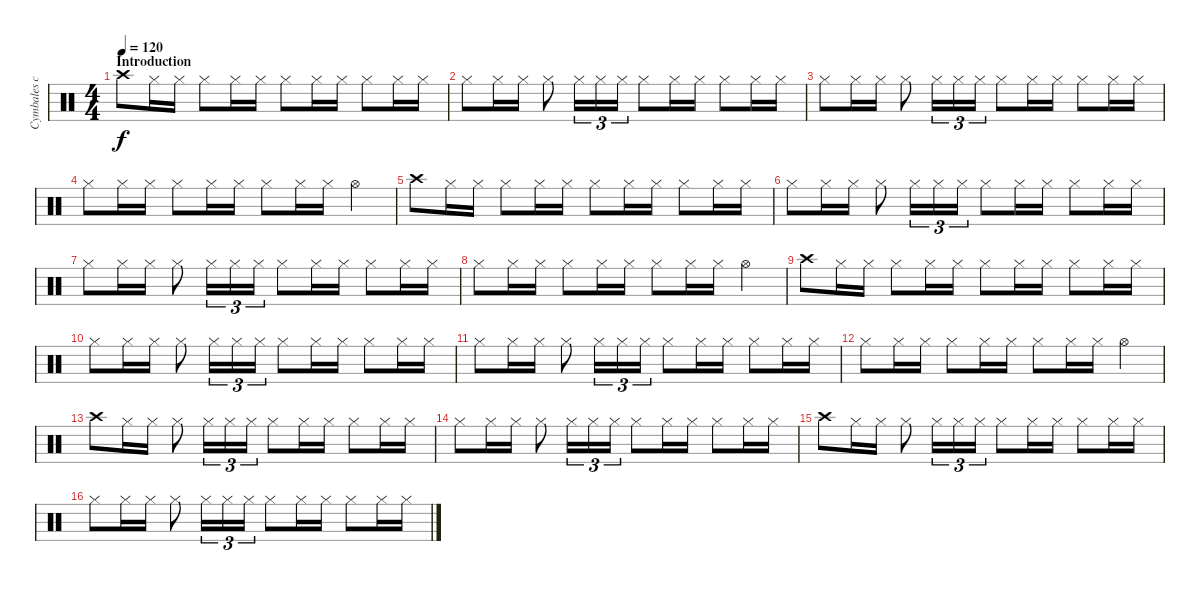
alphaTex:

\track ("Cymbales charlestone" "Cymbales c") {instrument percussion}
\staff {score}
\articulation defaults
\ts (4 4)
\section ("" "Introduction")
\tempo 120
\tempo 160
\tempo 120
\clef neutral
\ks c "Crash high (hit)".8{dy f} "Hi-Hat (closed)".16 "Hi-Hat (closed)".16 "Hi-Hat (closed)".8 "Hi-Hat (closed)".16 "Hi-Hat (closed)".16 "Hi-Hat (closed)".8 "Hi-Hat (closed)".16 "Hi-Hat (closed)".16 "Hi-Hat (closed)".8 "Hi-Hat (closed)".16 "Hi-Hat (closed)".16
|
"Hi-Hat (closed)".8 "Hi-Hat (closed)".16 "Hi-Hat (closed)".16 "Hi-Hat (closed)".8 "Hi-Hat (closed)".16{tu (3 2)} "Hi-Hat (closed)".16{tu (3 2)} "Hi-Hat (closed)".16{tu (3 2)} "Hi-Hat (closed)".8 "Hi-Hat (closed)".16 "Hi-Hat (closed)".16 "Hi-Hat (closed)".8 "Hi-Hat (closed)".16 "Hi-Hat (closed)".16 |
"Hi-Hat (closed)".8 "Hi-Hat (closed)".16 "Hi-Hat (closed)".16 "Hi-Hat (closed)".8 "Hi-Hat (closed)".16{tu (3 2)} "Hi-Hat (closed)".16{tu (3 2)} "Hi-Hat (closed)".16{tu (3 2)} "Hi-Hat (closed)".8 "Hi-Hat (closed)".16 "Hi-Hat (closed)".16 "Hi-Hat (closed)".8 "Hi-Hat (closed)".16 "Hi-Hat (closed)".16 |
"Hi-Hat (closed)".8 "Hi-Hat (closed)".16 "Hi-Hat (closed)".16 "Hi-Hat (closed)".8 "Hi-Hat (closed)".16 "Hi-Hat (closed)".16 "Hi-Hat (closed)".8 "Hi-Hat (closed)".16 "Hi-Hat (closed)".16 "Hi-Hat (open)".4 |
"Crash high (hit)".8 "Hi-Hat (closed)".16 "Hi-Hat (closed)".16 "Hi-Hat (closed)".8 "Hi-Hat (closed)".16 "Hi-Hat (closed)".16 "Hi-Hat (closed)".8 "Hi-Hat (closed)".16 "Hi-Hat (closed)".16 "Hi-Hat (closed)".8 "Hi-Hat (closed)".16 "Hi-Hat (closed)".16 |
"Hi-Hat (closed)".8 "Hi-Hat (closed)".16 "Hi-Hat (closed)".16 "Hi-Hat (closed)".8 "Hi-Hat (closed)".16{tu (3 2)} "Hi-Hat (closed)".16{tu (3 2)} "Hi-Hat (closed)".16{tu (3 2)} "Hi-Hat (closed)".8 "Hi-Hat (closed)".16 "Hi-Hat (closed)".16 "Hi-Hat (closed)".8 "Hi-Hat (closed)".16 "Hi-Hat (closed)".16 |
"Hi-Hat (closed)".8 "Hi-Hat (closed)".16 "Hi-Hat (closed)".16 "Hi-Hat (closed)".8 "Hi-Hat (closed)".16{tu (3 2)} "Hi-Hat (closed)".16{tu (3 2)} "Hi-Hat (closed)".16{tu (3 2)} "Hi-Hat (closed)".8 "Hi-Hat (closed)".16 "Hi-Hat (closed)".16 "Hi-Hat (closed)".8 "Hi-Hat (closed)".16 "Hi-Hat (closed)".16 |
"Hi-Hat (closed)".8 "Hi-Hat (closed)".16 "Hi-Hat (closed)".16 "Hi-Hat (closed)".8 "Hi-Hat (closed)".16 "Hi-Hat (closed)".16 "Hi-Hat (closed)".8 "Hi-Hat (closed)".16 "Hi-Hat (closed)".16 "Hi-Hat (open)".4 |
"Crash high (hit)".8 "Hi-Hat (closed)".16 "Hi-Hat (closed)".16 "Hi-Hat (closed)".8 "Hi-Hat (closed)".16 "Hi-Hat (closed)".16 "Hi-Hat (closed)".8 "Hi-Hat (closed)".16 "Hi-Hat (closed)".16 "Hi-Hat (closed)".8 "Hi-Hat (closed)".16 "Hi-Hat (closed)".16 |
"Hi-Hat (closed)".8 "Hi-Hat (closed)".16 "Hi-Hat (closed)".16 "Hi-Hat (closed)".8 "Hi-Hat (closed)".16{tu (3 2)} "Hi-Hat (closed)".16{tu (3 2)} "Hi-Hat (closed)".16{tu (3 2)} "Hi-Hat (closed)".8 "Hi-Hat (closed)".16 "Hi-Hat (closed)".16 "Hi-Hat (closed)".8 "Hi-Hat (closed)".16 "Hi-Hat (closed)".16 |
"Hi-Hat (closed)".8 "Hi-Hat (closed)".16 "Hi-Hat (closed)".16 "Hi-Hat (closed)".8 "Hi-Hat (closed)".16{tu (3 2)} "Hi-Hat (closed)".16{tu (3 2)} "Hi-Hat (closed)".16{tu (3 2)} "Hi-Hat (closed)".8 "Hi-Hat (closed)".16 "Hi-Hat (closed)".16 "Hi-Hat (closed)".8 "Hi-Hat (closed)".16 "Hi-Hat (closed)".16 |
"Hi-Hat (closed)".8 "Hi-Hat (closed)".16 "Hi-Hat (closed)".16 "Hi-Hat (closed)".8 "Hi-Hat (closed)".16 "Hi-Hat (closed)".16 "Hi-Hat (closed)".8 "Hi-Hat (closed)".16 "Hi-Hat (closed)".16 "Hi-Hat (open)".4 |
"Crash high (hit)".8 "Hi-Hat (closed)".16 "Hi-Hat (closed)".16 "Hi-Hat (closed)".8 "Hi-Hat (closed)".16{tu (3 2)} "Hi-Hat (closed)".16{tu (3 2)} "Hi-Hat (closed)".16{tu (3 2)} "Hi-Hat (closed)".8 "Hi-Hat (closed)".16 "Hi-Hat (closed)".16 "Hi-Hat (closed)".8 "Hi-Hat (closed)".16 "Hi-Hat (closed)".16 |
"Hi-Hat (closed)".8 "Hi-Hat (closed)".16 "Hi-Hat (closed)".16 "Hi-Hat (closed)".8 "Hi-Hat (closed)".16{tu (3 2)} "Hi-Hat (closed)".16{tu (3 2)} "Hi-Hat (closed)".16{tu (3 2)} "Hi-Hat (closed)".8 "Hi-Hat (closed)".16 "Hi-Hat (closed)".16 "Hi-Hat (closed)".8 "Hi-Hat (closed)".16 "Hi-Hat (closed)".16 |
"Crash high (hit)".8 "Hi-Hat (closed)".16 "Hi-Hat (closed)".16 "Hi-Hat (closed)".8 "Hi-Hat (closed)".16{tu (3 2)} "Hi-Hat (closed)".16{tu (3 2)} "Hi-Hat (closed)".16{tu (3 2)} "Hi-Hat (closed)".8 "Hi-Hat (closed)".16 "Hi-Hat (closed)".16 "Hi-Hat (closed)".8 "Hi-Hat (closed)".16 "Hi-Hat (closed)".16 |
"Hi-Hat (closed)".8 "Hi-Hat (closed)".16 "Hi-Hat (closed)".16 "Hi-Hat (closed)".8 "Hi-Hat (closed)".16{tu (3 2)} "Hi-Hat (closed)".16{tu (3 2)} "Hi-Hat (closed)".16{tu (3 2)} "Hi-Hat (closed)".8 "Hi-Hat (closed)".16 "Hi-Hat (closed)".16 "Hi-Hat (closed)".8 "Hi-Hat (closed)".16 "Hi-Hat (closed)".16
